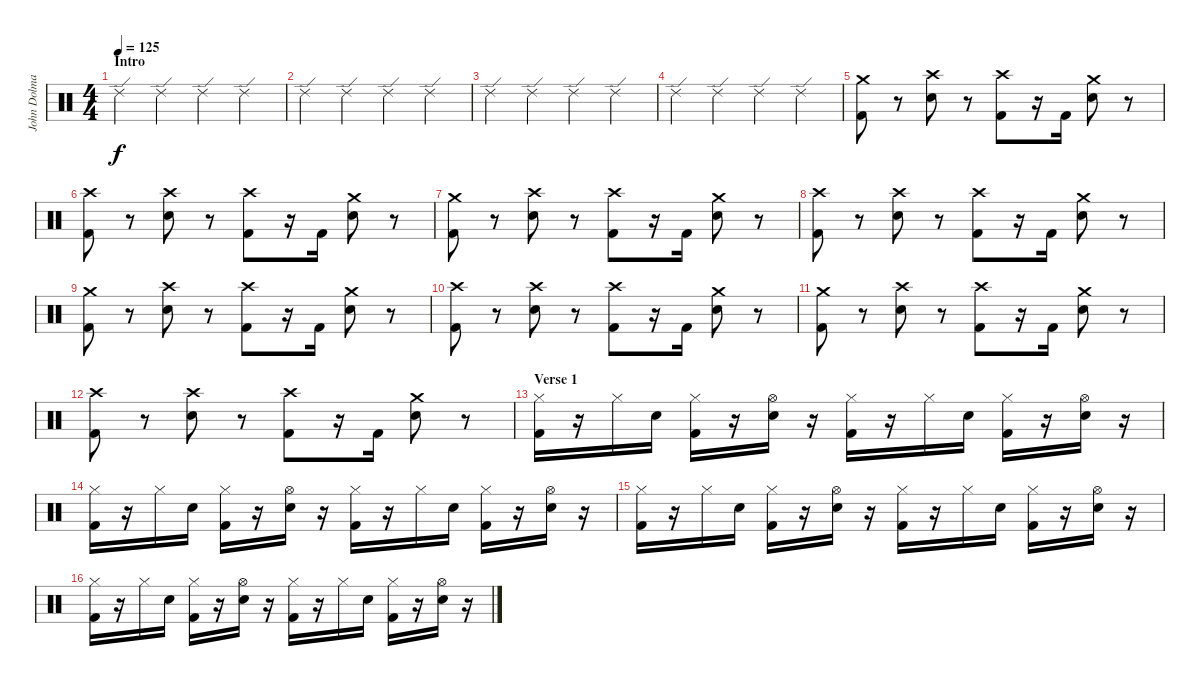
\track ("John Dolmayan" "John Dolma") {instrument percussion}
\staff {score}
\articulation defaults
\ts (4 4)
\section ("" "Intro")
\tempo 125
\clef neutral
\ks c "Ride (edge) 2".4{dy f} "Ride (edge) 2".4 "Ride (edge) 2".4 "Ride (edge) 2".4
|
"Ride (edge) 2".4 "Ride (edge) 2".4 "Ride (edge) 2".4 "Ride (edge) 2".4 |
"Ride (edge) 2".4 "Ride (edge) 2".4 "Ride (edge) 2".4 "Ride (edge) 2".4 |
"Ride (edge) 2".4 "Ride (edge) 2".4 "Ride (edge) 2".4 "Ride (edge) 2".4 |
("Crash medium (hit)" "Kick (hit) 2").8 r.8 ("Crash high (hit)" "Electric Snare (hit)").8 r.8 ("Crash high (hit)" "Kick (hit) 2").8 r.16 "Kick (hit) 2".16 ("Crash medium (hit)" "Electric Snare (hit)").8 r.8 |
("Crash high (hit)" "Kick (hit) 2").8 r.8 ("Crash high (hit)" "Electric Snare (hit)").8 r.8 ("Crash high (hit)" "Kick (hit) 2").8 r.16 "Kick (hit) 2".16 ("Crash medium (hit)" "Electric Snare (hit)").8 r.8 |
("Crash medium (hit)" "Kick (hit) 2").8 r.8 ("Crash high (hit)" "Electric Snare (hit)").8 r.8 ("Crash high (hit)" "Kick (hit) 2").8 r.16 "Kick (hit) 2".16 ("Crash medium (hit)" "Electric Snare (hit)").8 r.8 |
("Crash high (hit)" "Kick (hit) 2").8 r.8 ("Crash high (hit)" "Electric Snare (hit)").8 r.8 ("Crash high (hit)" "Kick (hit) 2").8 r.16 "Kick (hit) 2".16 ("Crash medium (hit)" "Electric Snare (hit)").8 r.8 |
("Crash medium (hit)" "Kick (hit) 2").8 r.8 ("Crash high (hit)" "Electric Snare (hit)").8 r.8 ("Crash high (hit)" "Kick (hit) 2").8 r.16 "Kick (hit) 2".16 ("Crash medium (hit)" "Electric Snare (hit)").8 r.8 |
("Crash high (hit)" "Kick (hit) 2").8 r.8 ("Crash high (hit)" "Electric Snare (hit)").8 r.8 ("Crash high (hit)" "Kick (hit) 2").8 r.16 "Kick (hit) 2".16 ("Crash medium (hit)" "Electric Snare (hit)").8 r.8 |
("Crash medium (hit)" "Kick (hit) 2").8 r.8 ("Crash high (hit)" "Electric Snare (hit)").8 r.8 ("Crash high (hit)" "Kick (hit) 2").8 r.16 "Kick (hit) 2".16 ("Crash medium (hit)" "Electric Snare (hit)").8 r.8 |
("Crash high (hit)" "Kick (hit) 2").8 r.8 ("Crash high (hit)" "Electric Snare (hit)").8 r.8 ("Crash high (hit)" "Kick (hit) 2").8 r.16 "Kick (hit) 2".16 ("Crash medium (hit)" "Electric Snare (hit)").8 r.8 |
\section ("" "Verse 1")
("Hi-Hat (closed)" "Kick (hit) 2").16 r.16 "Hi-Hat (closed)".16 "Electric Snare (hit)".16 ("Hi-Hat (closed)" "Kick (hit) 2").16 r.16 ("Hi-Hat (open)" "Electric Snare (hit)").16 r.16 ("Hi-Hat (closed)" "Kick (hit) 2").16 r.16 "Hi-Hat (closed)".16 "Electric Snare (hit)".16 ("Hi-Hat (closed)" "Kick (hit) 2").16 r.16 ("Hi-Hat (open)" "Electric Snare (hit)").16 r.16 |
("Hi-Hat (closed)" "Kick (hit) 2").16 r.16 "Hi-Hat (closed)".16 "Electric Snare (hit)".16 ("Hi-Hat (closed)" "Kick (hit) 2").16 r.16 ("Hi-Hat (open)" "Electric Snare (hit)").16 r.16 ("Hi-Hat (closed)" "Kick (hit) 2").16 r.16 "Hi-Hat (closed)".16 "Electric Snare (hit)".16 ("Hi-Hat (closed)" "Kick (hit) 2").16 r.16 ("Hi-Hat (open)" "Electric Snare (hit)").16 r.16 |
("Hi-Hat (closed)" "Kick (hit) 2").16 r.16 "Hi-Hat (closed)".16 "Electric Snare (hit)".16 ("Hi-Hat (closed)" "Kick (hit) 2").16 r.16 ("Hi-Hat (open)" "Electric Snare (hit)").16 r.16 ("Hi-Hat (closed)" "Kick (hit) 2").16 r.16 "Hi-Hat (closed)".16 "Electric Snare (hit)".16 ("Hi-Hat (closed)" "Kick (hit) 2").16 r.16 ("Hi-Hat (open)" "Electric Snare (hit)").16 r.16 |
("Hi-Hat (closed)" "Kick (hit) 2").16 r.16 "Hi-Hat (closed)".16 "Electric Snare (hit)".16 ("Hi-Hat (closed)" "Kick (hit) 2").16 r.16 ("Hi-Hat (open)" "Electric Snare (hit)").16 r.16 ("Hi-Hat (closed)" "Kick (hit) 2").16 r.16 "Hi-Hat (closed)".16 "Electric Snare (hit)".16 ("Hi-Hat (closed)" "Kick (hit) 2").16 r.16 ("Hi-Hat (open)" "Electric Snare (hit)").16 r.16
